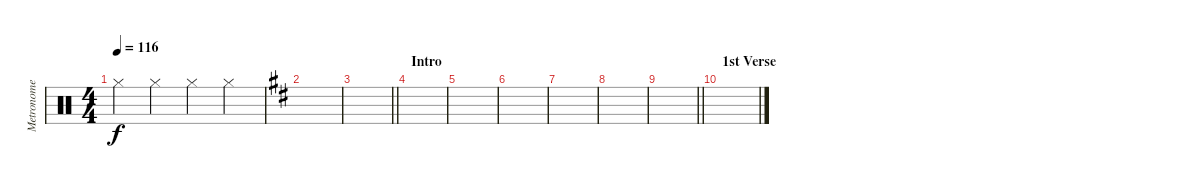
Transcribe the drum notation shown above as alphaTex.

\track ("Metronome" "Metronome") {instrument percussion}
\staff {score}
\articulation defaults
\ts (4 4)
\tempo 116
\clef neutral
\ks c "Hi-Hat (closed)".4{dy f} "Hi-Hat (closed)".4 "Hi-Hat (closed)".4 "Hi-Hat (closed)".4
|
\ks d
|
\barLineRight lightlight
|
\section ("" "Intro")
|
|
|
|
|
\barLineRight lightlight
|
\section ("" "1st Verse")
